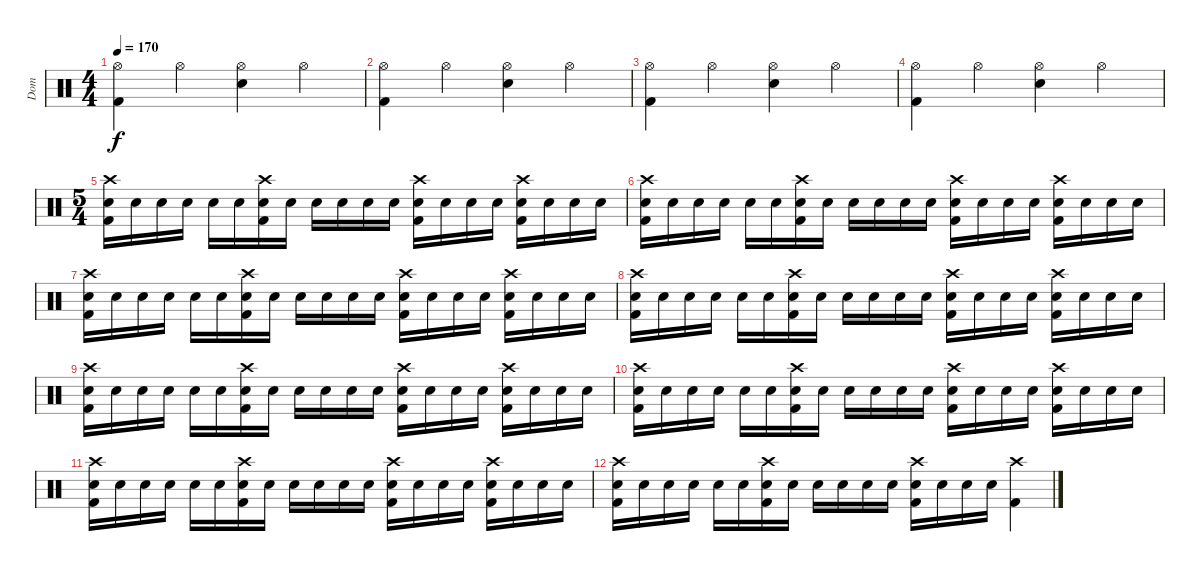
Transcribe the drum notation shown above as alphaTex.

\track ("Dom" "Dom") {instrument percussion}
\staff {score}
\articulation defaults
\ts (4 4)
\tempo 170
\clef neutral
\ks c
("Hi-Hat (open)" "Kick (hit) 2").4{dy f} "Hi-Hat (open)".4 ("Hi-Hat (open)" "Electric Snare (hit)").4 "Hi-Hat (open)".4 |
("Hi-Hat (open)" "Kick (hit) 2").4 "Hi-Hat (open)".4 ("Hi-Hat (open)" "Electric Snare (hit)").4 "Hi-Hat (open)".4 |
("Hi-Hat (open)" "Kick (hit) 2").4 "Hi-Hat (open)".4 ("Hi-Hat (open)" "Electric Snare (hit)").4 "Hi-Hat (open)".4 |
("Hi-Hat (open)" "Kick (hit) 2").4 "Hi-Hat (open)".4 ("Hi-Hat (open)" "Electric Snare (hit)").4 "Hi-Hat (open)".4 |
\ts (5 4)
("Crash high (hit)" "Electric Snare (hit)" "Kick (hit) 2").16 "Electric Snare (hit)".16 "Electric Snare (hit)".16 "Electric Snare (hit)".16 "Electric Snare (hit)".16 "Electric Snare (hit)".16 ("Crash high (hit)" "Electric Snare (hit)" "Kick (hit) 2").16 "Electric Snare (hit)".16 "Electric Snare (hit)".16 "Electric Snare (hit)".16 "Electric Snare (hit)".16 "Electric Snare (hit)".16 ("Crash high (hit)" "Electric Snare (hit)" "Kick (hit) 2").16 "Electric Snare (hit)".16 "Electric Snare (hit)".16 "Electric Snare (hit)".16 ("Crash high (hit)" "Electric Snare (hit)" "Kick (hit) 2").16 "Electric Snare (hit)".16 "Electric Snare (hit)".16 "Electric Snare (hit)".16 |
("Crash high (hit)" "Electric Snare (hit)" "Kick (hit) 2").16 "Electric Snare (hit)".16 "Electric Snare (hit)".16 "Electric Snare (hit)".16 "Electric Snare (hit)".16 "Electric Snare (hit)".16 ("Crash high (hit)" "Electric Snare (hit)" "Kick (hit) 2").16 "Electric Snare (hit)".16 "Electric Snare (hit)".16 "Electric Snare (hit)".16 "Electric Snare (hit)".16 "Electric Snare (hit)".16 ("Crash high (hit)" "Electric Snare (hit)" "Kick (hit) 2").16 "Electric Snare (hit)".16 "Electric Snare (hit)".16 "Electric Snare (hit)".16 ("Crash high (hit)" "Electric Snare (hit)" "Kick (hit) 2").16 "Electric Snare (hit)".16 "Electric Snare (hit)".16 "Electric Snare (hit)".16 |
("Crash high (hit)" "Electric Snare (hit)" "Kick (hit) 2").16 "Electric Snare (hit)".16 "Electric Snare (hit)".16 "Electric Snare (hit)".16 "Electric Snare (hit)".16 "Electric Snare (hit)".16 ("Crash high (hit)" "Electric Snare (hit)" "Kick (hit) 2").16 "Electric Snare (hit)".16 "Electric Snare (hit)".16 "Electric Snare (hit)".16 "Electric Snare (hit)".16 "Electric Snare (hit)".16 ("Crash high (hit)" "Electric Snare (hit)" "Kick (hit) 2").16 "Electric Snare (hit)".16 "Electric Snare (hit)".16 "Electric Snare (hit)".16 ("Crash high (hit)" "Electric Snare (hit)" "Kick (hit) 2").16 "Electric Snare (hit)".16 "Electric Snare (hit)".16 "Electric Snare (hit)".16 |
("Crash high (hit)" "Electric Snare (hit)" "Kick (hit) 2").16 "Electric Snare (hit)".16 "Electric Snare (hit)".16 "Electric Snare (hit)".16 "Electric Snare (hit)".16 "Electric Snare (hit)".16 ("Crash high (hit)" "Electric Snare (hit)" "Kick (hit) 2").16 "Electric Snare (hit)".16 "Electric Snare (hit)".16 "Electric Snare (hit)".16 "Electric Snare (hit)".16 "Electric Snare (hit)".16 ("Crash high (hit)" "Electric Snare (hit)" "Kick (hit) 2").16 "Electric Snare (hit)".16 "Electric Snare (hit)".16 "Electric Snare (hit)".16 ("Crash high (hit)" "Electric Snare (hit)" "Kick (hit) 2").16 "Electric Snare (hit)".16 "Electric Snare (hit)".16 "Electric Snare (hit)".16 |
("Crash high (hit)" "Electric Snare (hit)" "Kick (hit) 2").16 "Electric Snare (hit)".16 "Electric Snare (hit)".16 "Electric Snare (hit)".16 "Electric Snare (hit)".16 "Electric Snare (hit)".16 ("Crash high (hit)" "Electric Snare (hit)" "Kick (hit) 2").16 "Electric Snare (hit)".16 "Electric Snare (hit)".16 "Electric Snare (hit)".16 "Electric Snare (hit)".16 "Electric Snare (hit)".16 ("Crash high (hit)" "Electric Snare (hit)" "Kick (hit) 2").16 "Electric Snare (hit)".16 "Electric Snare (hit)".16 "Electric Snare (hit)".16 ("Crash high (hit)" "Electric Snare (hit)" "Kick (hit) 2").16 "Electric Snare (hit)".16 "Electric Snare (hit)".16 "Electric Snare (hit)".16 |
("Crash high (hit)" "Electric Snare (hit)" "Kick (hit) 2").16 "Electric Snare (hit)".16 "Electric Snare (hit)".16 "Electric Snare (hit)".16 "Electric Snare (hit)".16 "Electric Snare (hit)".16 ("Crash high (hit)" "Electric Snare (hit)" "Kick (hit) 2").16 "Electric Snare (hit)".16 "Electric Snare (hit)".16 "Electric Snare (hit)".16 "Electric Snare (hit)".16 "Electric Snare (hit)".16 ("Crash high (hit)" "Electric Snare (hit)" "Kick (hit) 2").16 "Electric Snare (hit)".16 "Electric Snare (hit)".16 "Electric Snare (hit)".16 ("Crash high (hit)" "Electric Snare (hit)" "Kick (hit) 2").16 "Electric Snare (hit)".16 "Electric Snare (hit)".16 "Electric Snare (hit)".16 |
("Crash high (hit)" "Electric Snare (hit)" "Kick (hit) 2").16 "Electric Snare (hit)".16 "Electric Snare (hit)".16 "Electric Snare (hit)".16 "Electric Snare (hit)".16 "Electric Snare (hit)".16 ("Crash high (hit)" "Electric Snare (hit)" "Kick (hit) 2").16 "Electric Snare (hit)".16 "Electric Snare (hit)".16 "Electric Snare (hit)".16 "Electric Snare (hit)".16 "Electric Snare (hit)".16 ("Crash high (hit)" "Electric Snare (hit)" "Kick (hit) 2").16 "Electric Snare (hit)".16 "Electric Snare (hit)".16 "Electric Snare (hit)".16 ("Crash high (hit)" "Electric Snare (hit)" "Kick (hit) 2").16 "Electric Snare (hit)".16 "Electric Snare (hit)".16 "Electric Snare (hit)".16 |
("Crash high (hit)" "Electric Snare (hit)" "Kick (hit) 2").16 "Electric Snare (hit)".16 "Electric Snare (hit)".16 "Electric Snare (hit)".16 "Electric Snare (hit)".16 "Electric Snare (hit)".16 ("Crash high (hit)" "Electric Snare (hit)" "Kick (hit) 2").16 "Electric Snare (hit)".16 "Electric Snare (hit)".16 "Electric Snare (hit)".16 "Electric Snare (hit)".16 "Electric Snare (hit)".16 ("Crash high (hit)" "Electric Snare (hit)" "Kick (hit) 2").16 "Electric Snare (hit)".16 "Electric Snare (hit)".16 "Electric Snare (hit)".16 ("Crash high (hit)" "Kick (hit) 2").4
